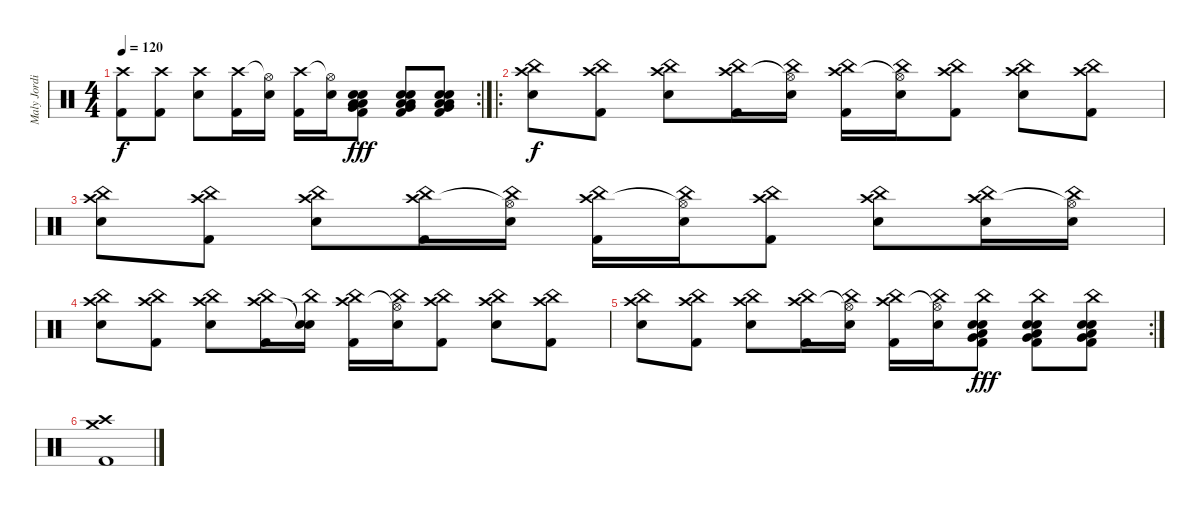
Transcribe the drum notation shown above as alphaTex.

\track ("Maly Jordison   - drums" "Maly Jordi") {instrument percussion}
\staff {score}
\articulation defaults
\rc 2
\ts (4 4)
\tempo 120
\clef neutral
\ks c
("Crash high (hit)" "Kick (hit) 2").8{dy f} ("Crash high (hit)" "Kick (hit) 2").8 ("Crash high (hit)" "Electric Snare (hit)").8 ("Crash high (hit)" "Kick (hit) 2").16 ("Hi-Hat (open)"{t} "Electric Snare (hit)").16 ("Crash high (hit)" "Kick (hit) 2").16 ("Hi-Hat (open)"{t} "Electric Snare (hit)").16 ("Kick (hit) 2" "Very Low Tom (hit)" "Low Floor Tom (hit)" "Low Floor Tom (hit)" "Electric Snare (hit)" "Electric Snare (hit)").8{dy fff} ("Kick (hit) 2" "Very Low Tom (hit)" "Low Floor Tom (hit)" "Low Floor Tom (hit)" "Electric Snare (hit)" "Electric Snare (hit)").8 ("Kick (hit) 2" "Very Low Tom (hit)" "Low Floor Tom (hit)" "Low Floor Tom (hit)" "Electric Snare (hit)" "Electric Snare (hit)").8 |
\ro
("Crash high (hit)" "China (hit)" "Electric Snare (hit)").8{dy f} ("Crash high (hit)" "China (hit)" "Kick (hit) 2").8 ("Crash high (hit)" "China (hit)" "Electric Snare (hit)").8 ("Crash high (hit)" "China (hit)" "Kick (hit) 2").16 ("Hi-Hat (open)"{t} "China (hit)" "Electric Snare (hit)").16 ("Crash high (hit)" "China (hit)" "Kick (hit) 2").16 ("Hi-Hat (open)"{t} "China (hit)" "Electric Snare (hit)").16 ("Crash high (hit)" "China (hit)" "Kick (hit) 2").8 ("Crash high (hit)" "China (hit)" "Electric Snare (hit)").8 ("Crash high (hit)" "China (hit)" "Kick (hit) 2").8 |
("Crash high (hit)" "China (hit)" "Electric Snare (hit)").8 ("Crash high (hit)" "China (hit)" "Kick (hit) 2").8 ("Crash high (hit)" "China (hit)" "Electric Snare (hit)").8 ("Crash high (hit)" "China (hit)" "Kick (hit) 2").16 ("Hi-Hat (open)"{t} "China (hit)" "Electric Snare (hit)").16 ("Crash high (hit)" "China (hit)" "Kick (hit) 2").16 ("Hi-Hat (open)"{t} "China (hit)" "Electric Snare (hit)").16 ("Crash high (hit)" "China (hit)" "Kick (hit) 2").8 ("Crash high (hit)" "China (hit)" "Electric Snare (hit)").8 ("Crash high (hit)" "China (hit)" "Electric Snare (hit)").16 ("Hi-Hat (open)"{t} "China (hit)" "Electric Snare (hit)").16 |
("Crash high (hit)" "China (hit)" "Electric Snare (hit)").8 ("Crash high (hit)" "China (hit)" "Kick (hit) 2").8 ("Crash high (hit)" "China (hit)" "Electric Snare (hit)").8 ("Crash high (hit)" "China (hit)" "Kick (hit) 2").16 ("Snare (hit)"{t} "China (hit)" "Electric Snare (hit)").16 ("Crash high (hit)" "China (hit)" "Kick (hit) 2").16 ("Hi-Hat (open)"{t} "China (hit)" "Electric Snare (hit)").16 ("Crash high (hit)" "China (hit)" "Kick (hit) 2").8 ("Crash high (hit)" "China (hit)" "Electric Snare (hit)").8 ("Crash high (hit)" "China (hit)" "Kick (hit) 2").8 |
\rc 2
("Crash high (hit)" "China (hit)" "Electric Snare (hit)").8 ("Crash high (hit)" "China (hit)" "Kick (hit) 2").8 ("Crash high (hit)" "China (hit)" "Electric Snare (hit)").8 ("Crash high (hit)" "China (hit)" "Kick (hit) 2").16 ("Hi-Hat (open)"{t} "China (hit)" "Electric Snare (hit)").16 ("Crash high (hit)" "China (hit)" "Kick (hit) 2").16 ("Hi-Hat (open)"{t} "China (hit)" "Electric Snare (hit)").16 ("Kick (hit) 2" "Very Low Tom (hit)" "China (hit)" "Low Floor Tom (hit)" "Electric Snare (hit)" "Electric Snare (hit)").8{dy fff} ("Kick (hit) 2" "Very Low Tom (hit)" "China (hit)" "Low Floor Tom (hit)" "Electric Snare (hit)" "Electric Snare (hit)").8 ("Kick (hit) 2" "Very Low Tom (hit)" "China (hit)" "Low Floor Tom (hit)" "Electric Snare (hit)" "Electric Snare (hit)").8 |
("Crash high (hit)" "Crash medium (hit)" "Kick (hit) 2").1
